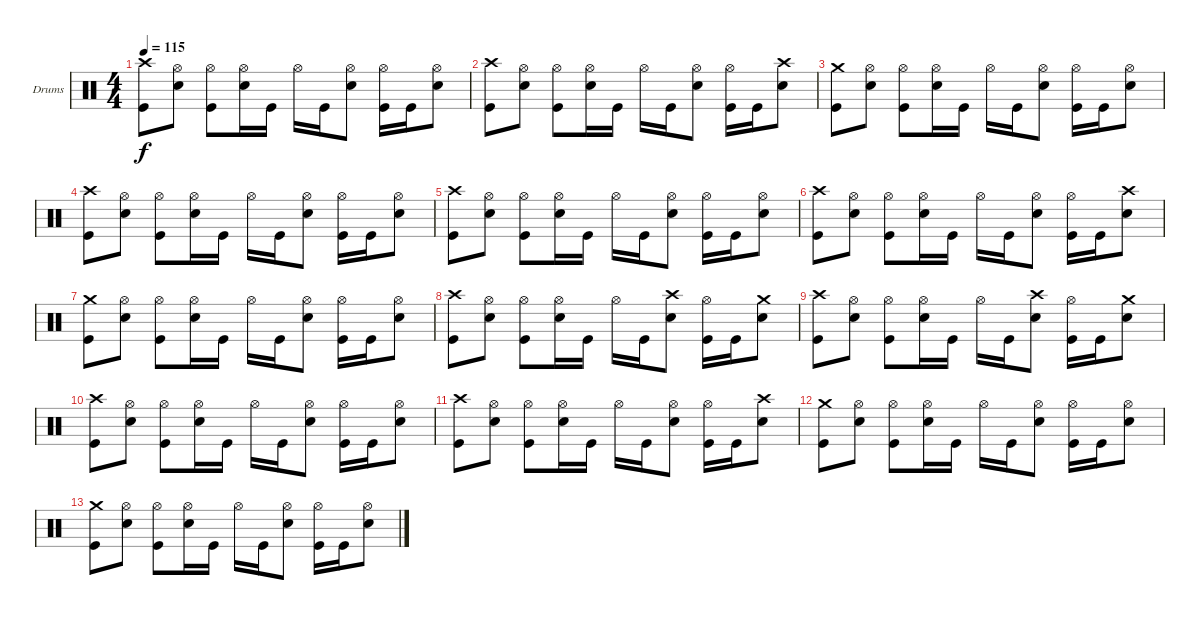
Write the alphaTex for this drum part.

\bracketExtendMode groupsimilarinstruments
\firstSystemTrackNameOrientation horizontal
\otherSystemsTrackNameOrientation horizontal
\track ("Drumkit" "Drums") {instrument percussion}
\staff {score}
\articulation defaults
\ts (4 4)
\tempo 115
\clef neutral
\ks c
("Crash high (hit)" "Kick (hit)").8{dy f} ("Hi-Hat (open)" "Snare (hit) 2").8 ("Hi-Hat (open)" "Kick (hit)").8 ("Hi-Hat (open)" "Snare (hit) 2").16 "Kick (hit)".16 "Hi-Hat (open)".16 "Kick (hit)".16 ("Hi-Hat (open)" "Snare (hit) 2").8 ("Hi-Hat (open)" "Kick (hit)").16 "Kick (hit)".16 ("Hi-Hat (open)" "Snare (hit) 2").8 |
("Crash high (hit)" "Kick (hit)").8 ("Hi-Hat (open)" "Snare (hit) 2").8 ("Hi-Hat (open)" "Kick (hit)").8 ("Hi-Hat (open)" "Snare (hit) 2").16 "Kick (hit)".16 "Hi-Hat (open)".16 "Kick (hit)".16 ("Hi-Hat (open)" "Snare (hit) 2").8 ("Hi-Hat (open)" "Kick (hit)").16 "Kick (hit)".16 ("Crash high (hit)" "Snare (hit) 2").8 |
("Crash medium (hit)" "Kick (hit)").8 ("Hi-Hat (open)" "Snare (hit) 2").8 ("Hi-Hat (open)" "Kick (hit)").8 ("Hi-Hat (open)" "Snare (hit) 2").16 "Kick (hit)".16 "Hi-Hat (open)".16 "Kick (hit)".16 ("Hi-Hat (open)" "Snare (hit) 2").8 ("Hi-Hat (open)" "Kick (hit)").16 "Kick (hit)".16 ("Hi-Hat (open)" "Snare (hit) 2").8 |
("Crash high (hit)" "Kick (hit)").8 ("Hi-Hat (open)" "Snare (hit) 2").8 ("Hi-Hat (open)" "Kick (hit)").8 ("Hi-Hat (open)" "Snare (hit) 2").16 "Kick (hit)".16 "Hi-Hat (open)".16 "Kick (hit)".16 ("Hi-Hat (open)" "Snare (hit) 2").8 ("Hi-Hat (open)" "Kick (hit)").16 "Kick (hit)".16 ("Hi-Hat (open)" "Snare (hit) 2").8 |
("Crash high (hit)" "Kick (hit)").8 ("Hi-Hat (open)" "Snare (hit) 2").8 ("Hi-Hat (open)" "Kick (hit)").8 ("Hi-Hat (open)" "Snare (hit) 2").16 "Kick (hit)".16 "Hi-Hat (open)".16 "Kick (hit)".16 ("Hi-Hat (open)" "Snare (hit) 2").8 ("Hi-Hat (open)" "Kick (hit)").16 "Kick (hit)".16 ("Hi-Hat (open)" "Snare (hit) 2").8 |
("Crash high (hit)" "Kick (hit)").8 ("Hi-Hat (open)" "Snare (hit) 2").8 ("Hi-Hat (open)" "Kick (hit)").8 ("Hi-Hat (open)" "Snare (hit) 2").16 "Kick (hit)".16 "Hi-Hat (open)".16 "Kick (hit)".16 ("Hi-Hat (open)" "Snare (hit) 2").8 ("Hi-Hat (open)" "Kick (hit)").16 "Kick (hit)".16 ("Crash high (hit)" "Snare (hit) 2").8 |
("Crash medium (hit)" "Kick (hit)").8 ("Hi-Hat (open)" "Snare (hit) 2").8 ("Hi-Hat (open)" "Kick (hit)").8 ("Hi-Hat (open)" "Snare (hit) 2").16 "Kick (hit)".16 "Hi-Hat (open)".16 "Kick (hit)".16 ("Hi-Hat (open)" "Snare (hit) 2").8 ("Hi-Hat (open)" "Kick (hit)").16 "Kick (hit)".16 ("Hi-Hat (open)" "Snare (hit) 2").8 |
("Crash high (hit)" "Kick (hit)").8 ("Hi-Hat (open)" "Snare (hit) 2").8 ("Hi-Hat (open)" "Kick (hit)").8 ("Hi-Hat (open)" "Snare (hit) 2").16 "Kick (hit)".16 "Hi-Hat (open)".16 "Kick (hit)".16 ("Crash high (hit)" "Snare (hit) 2").8 ("Hi-Hat (open)" "Kick (hit)").16 "Kick (hit)".16 ("Crash medium (hit)" "Snare (hit) 2").8 |
("Crash high (hit)" "Kick (hit)").8 ("Hi-Hat (open)" "Snare (hit) 2").8 ("Hi-Hat (open)" "Kick (hit)").8 ("Hi-Hat (open)" "Snare (hit) 2").16 "Kick (hit)".16 "Hi-Hat (open)".16 "Kick (hit)".16 ("Crash high (hit)" "Snare (hit) 2").8 ("Hi-Hat (open)" "Kick (hit)").16 "Kick (hit)".16 ("Crash medium (hit)" "Snare (hit) 2").8 |
("Crash high (hit)" "Kick (hit)").8 ("Hi-Hat (open)" "Snare (hit) 2").8 ("Hi-Hat (open)" "Kick (hit)").8 ("Hi-Hat (open)" "Snare (hit) 2").16 "Kick (hit)".16 "Hi-Hat (open)".16 "Kick (hit)".16 ("Hi-Hat (open)" "Snare (hit) 2").8 ("Hi-Hat (open)" "Kick (hit)").16 "Kick (hit)".16 ("Hi-Hat (open)" "Snare (hit) 2").8 |
("Crash high (hit)" "Kick (hit)").8 ("Hi-Hat (open)" "Snare (hit) 2").8 ("Hi-Hat (open)" "Kick (hit)").8 ("Hi-Hat (open)" "Snare (hit) 2").16 "Kick (hit)".16 "Hi-Hat (open)".16 "Kick (hit)".16 ("Hi-Hat (open)" "Snare (hit) 2").8 ("Hi-Hat (open)" "Kick (hit)").16 "Kick (hit)".16 ("Crash high (hit)" "Snare (hit) 2").8 |
("Crash medium (hit)" "Kick (hit)").8 ("Hi-Hat (open)" "Snare (hit) 2").8 ("Hi-Hat (open)" "Kick (hit)").8 ("Hi-Hat (open)" "Snare (hit) 2").16 "Kick (hit)".16 "Hi-Hat (open)".16 "Kick (hit)".16 ("Hi-Hat (open)" "Snare (hit) 2").8 ("Hi-Hat (open)" "Kick (hit)").16 "Kick (hit)".16 ("Hi-Hat (open)" "Snare (hit) 2").8 |
("Crash medium (hit)" "Kick (hit)").8 ("Hi-Hat (open)" "Snare (hit) 2").8 ("Hi-Hat (open)" "Kick (hit)").8 ("Hi-Hat (open)" "Snare (hit) 2").16 "Kick (hit)".16 "Hi-Hat (open)".16 "Kick (hit)".16 ("Hi-Hat (open)" "Snare (hit) 2").8 ("Hi-Hat (open)" "Kick (hit)").16 "Kick (hit)".16 ("Hi-Hat (open)" "Snare (hit) 2").8
